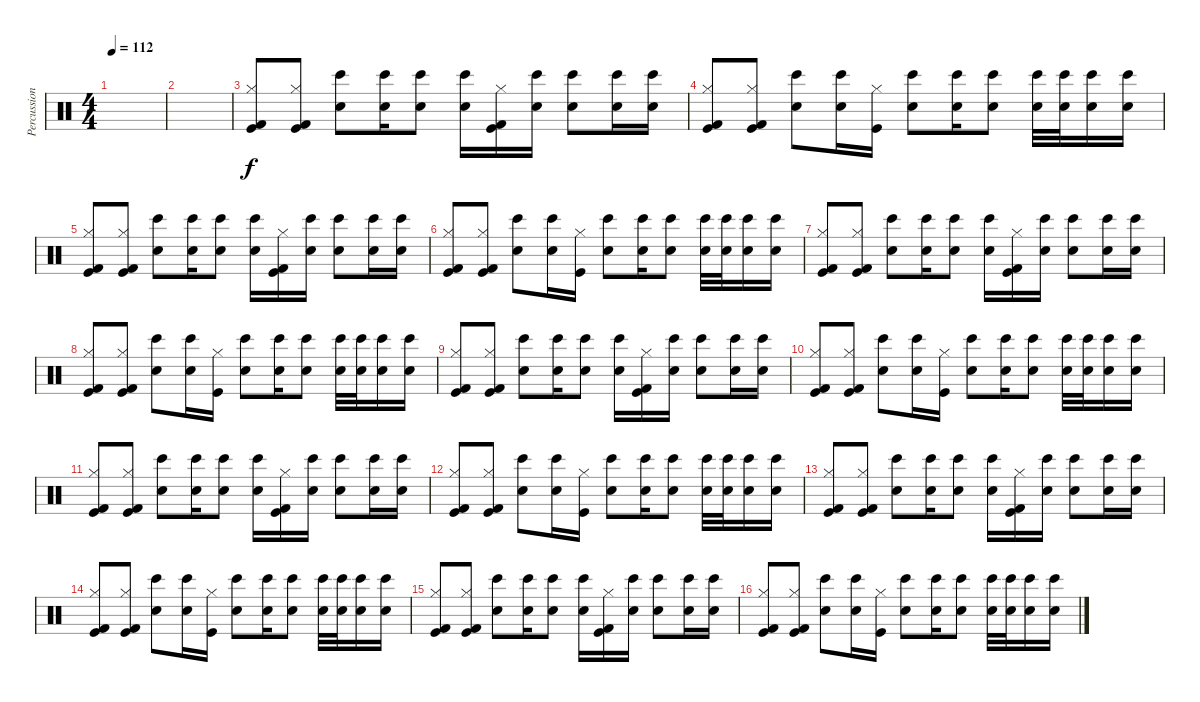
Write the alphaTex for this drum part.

\track ("Percussion" "Percussion") {instrument percussion}
\staff {score}
\articulation defaults
\ts (4 4)
\tempo 112
\clef neutral
\ks c
|
|
("Kick (hit)" "Hi-Hat (closed)" "Kick (hit) 2").8 ("Hi-Hat (closed)" "Kick (hit)" "Kick (hit) 2").8 ("Bongo High (hit)" "Snare (hit) 2").8 ("Bongo High (hit)" "Snare (hit) 2").16 ("Bongo High (hit)" "Snare (hit) 2").8 ("Snare (hit) 2" "Bongo High (hit)").16 ("Hi-Hat (closed)" "Kick (hit) 2" "Kick (hit)").16 ("Bongo High (hit)" "Snare (hit) 2").16 ("Bongo High (hit)" "Snare (hit) 2").8 ("Bongo High (hit)" "Snare (hit) 2").16 ("Bongo High (hit)" "Snare (hit) 2").16 |
("Kick (hit)" "Hi-Hat (closed)" "Kick (hit) 2").8 ("Hi-Hat (closed)" "Kick (hit)" "Kick (hit) 2").8 ("Bongo High (hit)" "Snare (hit) 2").8 ("Bongo High (hit)" "Snare (hit) 2").16 ("Hi-Hat (closed)" "Kick (hit)").16 ("Snare (hit) 2" "Bongo High (hit)").8 ("Bongo High (hit)" "Snare (hit) 2").16 ("Bongo High (hit)" "Snare (hit) 2").8 ("Bongo High (hit)" "Snare (hit) 2").32 ("Bongo High (hit)" "Snare (hit) 2").32 ("Bongo High (hit)" "Snare (hit) 2").16 ("Bongo High (hit)" "Snare (hit) 2").16 |
("Kick (hit)" "Hi-Hat (closed)" "Kick (hit) 2").8 ("Hi-Hat (closed)" "Kick (hit)" "Kick (hit) 2").8 ("Bongo High (hit)" "Snare (hit) 2").8 ("Bongo High (hit)" "Snare (hit) 2").16 ("Bongo High (hit)" "Snare (hit) 2").8 ("Snare (hit) 2" "Bongo High (hit)").16 ("Hi-Hat (closed)" "Kick (hit) 2" "Kick (hit)").16 ("Bongo High (hit)" "Snare (hit) 2").16 ("Bongo High (hit)" "Snare (hit) 2").8 ("Bongo High (hit)" "Snare (hit) 2").16 ("Bongo High (hit)" "Snare (hit) 2").16 |
("Kick (hit)" "Hi-Hat (closed)" "Kick (hit) 2").8 ("Hi-Hat (closed)" "Kick (hit)" "Kick (hit) 2").8 ("Bongo High (hit)" "Snare (hit) 2").8 ("Bongo High (hit)" "Snare (hit) 2").16 ("Hi-Hat (closed)" "Kick (hit)").16 ("Snare (hit) 2" "Bongo High (hit)").8 ("Bongo High (hit)" "Snare (hit) 2").16 ("Bongo High (hit)" "Snare (hit) 2").8 ("Bongo High (hit)" "Snare (hit) 2").32 ("Bongo High (hit)" "Snare (hit) 2").32 ("Bongo High (hit)" "Snare (hit) 2").16 ("Bongo High (hit)" "Snare (hit) 2").16 |
("Kick (hit)" "Hi-Hat (closed)" "Kick (hit) 2").8 ("Hi-Hat (closed)" "Kick (hit)" "Kick (hit) 2").8 ("Bongo High (hit)" "Snare (hit) 2").8 ("Bongo High (hit)" "Snare (hit) 2").16 ("Bongo High (hit)" "Snare (hit) 2").8 ("Snare (hit) 2" "Bongo High (hit)").16 ("Hi-Hat (closed)" "Kick (hit) 2" "Kick (hit)").16 ("Bongo High (hit)" "Snare (hit) 2").16 ("Bongo High (hit)" "Snare (hit) 2").8 ("Bongo High (hit)" "Snare (hit) 2").16 ("Bongo High (hit)" "Snare (hit) 2").16 |
("Kick (hit)" "Hi-Hat (closed)" "Kick (hit) 2").8 ("Hi-Hat (closed)" "Kick (hit)" "Kick (hit) 2").8 ("Bongo High (hit)" "Snare (hit) 2").8 ("Bongo High (hit)" "Snare (hit) 2").16 ("Hi-Hat (closed)" "Kick (hit)").16 ("Snare (hit) 2" "Bongo High (hit)").8 ("Bongo High (hit)" "Snare (hit) 2").16 ("Bongo High (hit)" "Snare (hit) 2").8 ("Bongo High (hit)" "Snare (hit) 2").32 ("Bongo High (hit)" "Snare (hit) 2").32 ("Bongo High (hit)" "Snare (hit) 2").16 ("Bongo High (hit)" "Snare (hit) 2").16 |
("Kick (hit)" "Hi-Hat (closed)" "Kick (hit) 2").8 ("Hi-Hat (closed)" "Kick (hit)" "Kick (hit) 2").8 ("Bongo High (hit)" "Snare (hit) 2").8 ("Bongo High (hit)" "Snare (hit) 2").16 ("Bongo High (hit)" "Snare (hit) 2").8 ("Snare (hit) 2" "Bongo High (hit)").16 ("Hi-Hat (closed)" "Kick (hit) 2" "Kick (hit)").16 ("Bongo High (hit)" "Snare (hit) 2").16 ("Bongo High (hit)" "Snare (hit) 2").8 ("Bongo High (hit)" "Snare (hit) 2").16 ("Bongo High (hit)" "Snare (hit) 2").16 |
("Kick (hit)" "Hi-Hat (closed)" "Kick (hit) 2").8 ("Hi-Hat (closed)" "Kick (hit)" "Kick (hit) 2").8 ("Bongo High (hit)" "Snare (hit) 2").8 ("Bongo High (hit)" "Snare (hit) 2").16 ("Hi-Hat (closed)" "Kick (hit)").16 ("Snare (hit) 2" "Bongo High (hit)").8 ("Bongo High (hit)" "Snare (hit) 2").16 ("Bongo High (hit)" "Snare (hit) 2").8 ("Bongo High (hit)" "Snare (hit) 2").32 ("Bongo High (hit)" "Snare (hit) 2").32 ("Bongo High (hit)" "Snare (hit) 2").16 ("Bongo High (hit)" "Snare (hit) 2").16 |
("Kick (hit)" "Hi-Hat (closed)" "Kick (hit) 2").8 ("Hi-Hat (closed)" "Kick (hit)" "Kick (hit) 2").8 ("Bongo High (hit)" "Snare (hit) 2").8 ("Bongo High (hit)" "Snare (hit) 2").16 ("Bongo High (hit)" "Snare (hit) 2").8 ("Snare (hit) 2" "Bongo High (hit)").16 ("Hi-Hat (closed)" "Kick (hit) 2" "Kick (hit)").16 ("Bongo High (hit)" "Snare (hit) 2").16 ("Bongo High (hit)" "Snare (hit) 2").8 ("Bongo High (hit)" "Snare (hit) 2").16 ("Bongo High (hit)" "Snare (hit) 2").16 |
("Kick (hit)" "Hi-Hat (closed)" "Kick (hit) 2").8 ("Hi-Hat (closed)" "Kick (hit)" "Kick (hit) 2").8 ("Bongo High (hit)" "Snare (hit) 2").8 ("Bongo High (hit)" "Snare (hit) 2").16 ("Hi-Hat (closed)" "Kick (hit)").16 ("Snare (hit) 2" "Bongo High (hit)").8 ("Bongo High (hit)" "Snare (hit) 2").16 ("Bongo High (hit)" "Snare (hit) 2").8 ("Bongo High (hit)" "Snare (hit) 2").32 ("Bongo High (hit)" "Snare (hit) 2").32 ("Bongo High (hit)" "Snare (hit) 2").16 ("Bongo High (hit)" "Snare (hit) 2").16 |
("Kick (hit)" "Hi-Hat (closed)" "Kick (hit) 2").8 ("Hi-Hat (closed)" "Kick (hit)" "Kick (hit) 2").8 ("Bongo High (hit)" "Snare (hit) 2").8 ("Bongo High (hit)" "Snare (hit) 2").16 ("Bongo High (hit)" "Snare (hit) 2").8 ("Snare (hit) 2" "Bongo High (hit)").16 ("Hi-Hat (closed)" "Kick (hit) 2" "Kick (hit)").16 ("Bongo High (hit)" "Snare (hit) 2").16 ("Bongo High (hit)" "Snare (hit) 2").8 ("Bongo High (hit)" "Snare (hit) 2").16 ("Bongo High (hit)" "Snare (hit) 2").16 |
("Kick (hit)" "Hi-Hat (closed)" "Kick (hit) 2").8 ("Hi-Hat (closed)" "Kick (hit)" "Kick (hit) 2").8 ("Bongo High (hit)" "Snare (hit) 2").8 ("Bongo High (hit)" "Snare (hit) 2").16 ("Hi-Hat (closed)" "Kick (hit)").16 ("Snare (hit) 2" "Bongo High (hit)").8 ("Bongo High (hit)" "Snare (hit) 2").16 ("Bongo High (hit)" "Snare (hit) 2").8 ("Bongo High (hit)" "Snare (hit) 2").32 ("Bongo High (hit)" "Snare (hit) 2").32 ("Bongo High (hit)" "Snare (hit) 2").16 ("Bongo High (hit)" "Snare (hit) 2").16 |
("Kick (hit)" "Hi-Hat (closed)" "Kick (hit) 2").8 ("Hi-Hat (closed)" "Kick (hit)" "Kick (hit) 2").8 ("Bongo High (hit)" "Snare (hit) 2").8 ("Bongo High (hit)" "Snare (hit) 2").16 ("Bongo High (hit)" "Snare (hit) 2").8 ("Snare (hit) 2" "Bongo High (hit)").16 ("Hi-Hat (closed)" "Kick (hit) 2" "Kick (hit)").16 ("Bongo High (hit)" "Snare (hit) 2").16 ("Bongo High (hit)" "Snare (hit) 2").8 ("Bongo High (hit)" "Snare (hit) 2").16 ("Bongo High (hit)" "Snare (hit) 2").16 |
("Kick (hit)" "Hi-Hat (closed)" "Kick (hit) 2").8 ("Hi-Hat (closed)" "Kick (hit)" "Kick (hit) 2").8 ("Bongo High (hit)" "Snare (hit) 2").8 ("Bongo High (hit)" "Snare (hit) 2").16 ("Hi-Hat (closed)" "Kick (hit)").16 ("Snare (hit) 2" "Bongo High (hit)").8 ("Bongo High (hit)" "Snare (hit) 2").16 ("Bongo High (hit)" "Snare (hit) 2").8 ("Bongo High (hit)" "Snare (hit) 2").32 ("Bongo High (hit)" "Snare (hit) 2").32 ("Bongo High (hit)" "Snare (hit) 2").16 ("Bongo High (hit)" "Snare (hit) 2").16
